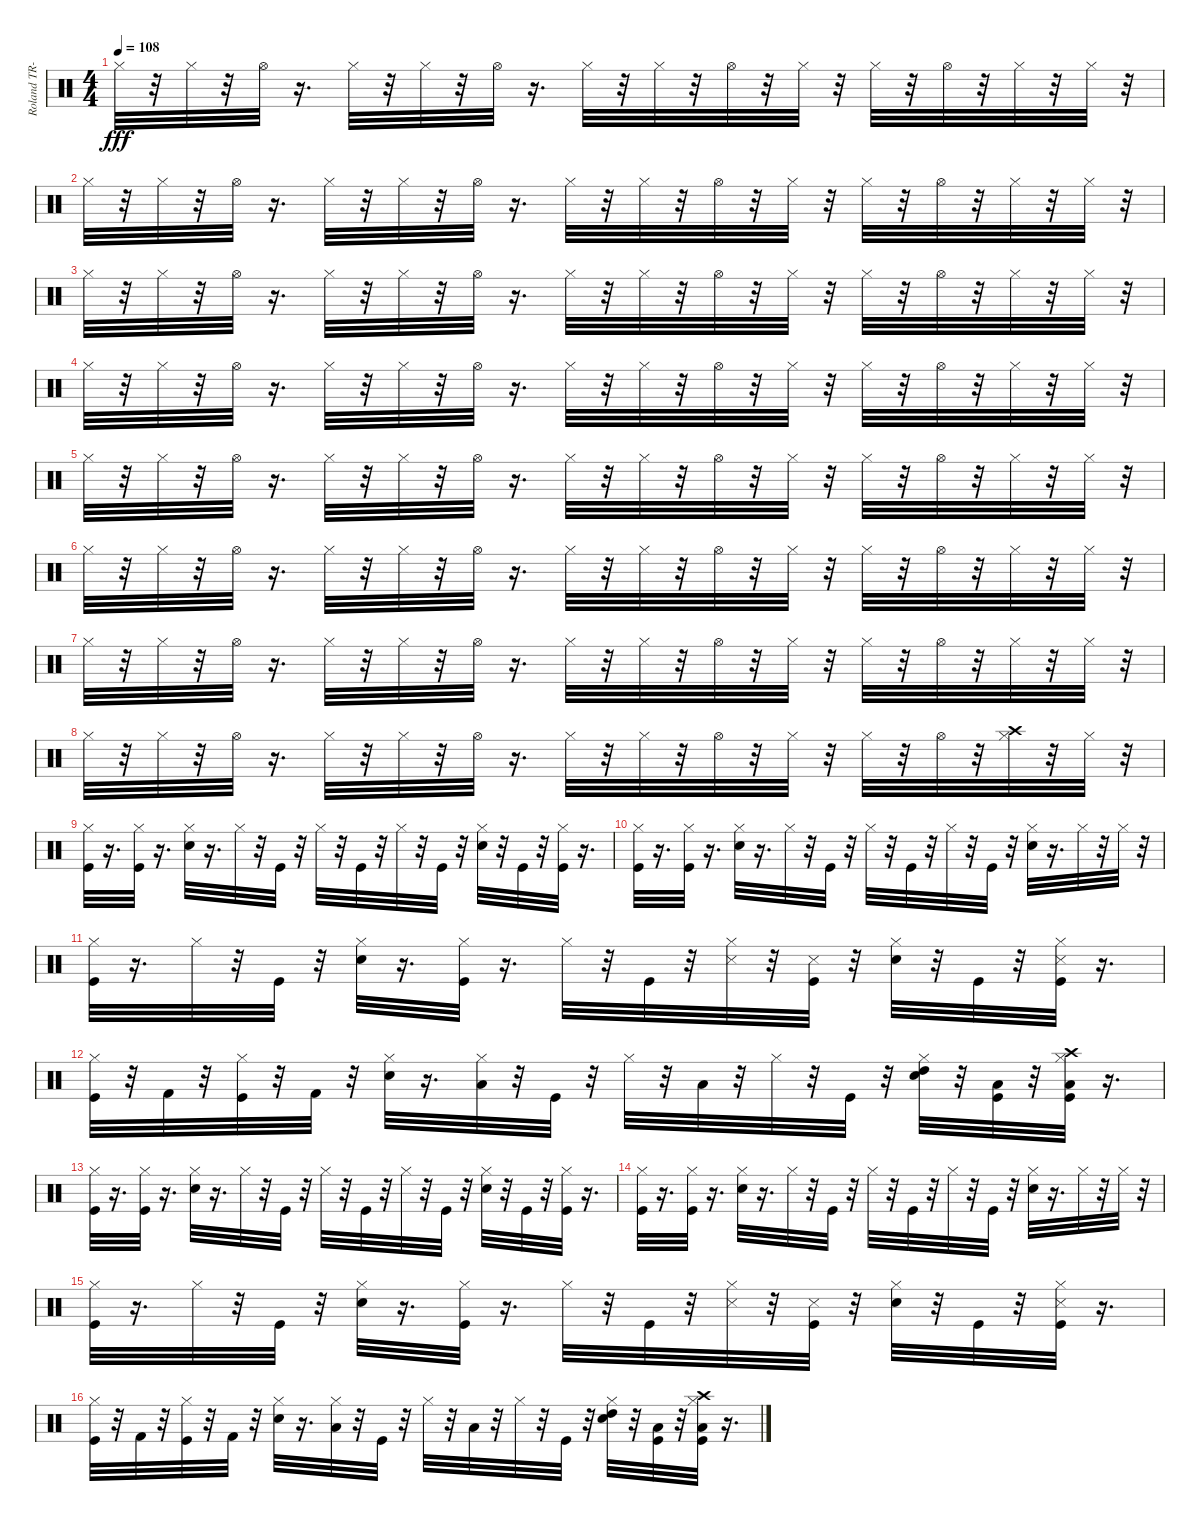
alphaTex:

\track ("Roland TR-707" "Roland TR-") {instrument percussion}
\staff {score}
\articulation defaults
\ts (4 4)
\tempo 108
\clef neutral
\ks c "Hi-Hat (closed)".32{dy fff}
r.32 "Hi-Hat (closed)".32 r.32 "Hi-Hat (open)".32 r.16{d} "Hi-Hat (closed)".32 r.32 "Hi-Hat (closed)".32 r.32 "Hi-Hat (open)".32 r.16{d} "Hi-Hat (closed)".32 r.32 "Hi-Hat (closed)".32 r.32 "Hi-Hat (open)".32 r.32 "Hi-Hat (closed)".32 r.32 "Hi-Hat (closed)".32 r.32 "Hi-Hat (open)".32 r.32 "Hi-Hat (closed)".32 r.32 "Hi-Hat (closed)".32 r.32 |
"Hi-Hat (closed)".32 r.32 "Hi-Hat (closed)".32 r.32 "Hi-Hat (open)".32 r.16{d} "Hi-Hat (closed)".32 r.32 "Hi-Hat (closed)".32 r.32 "Hi-Hat (open)".32 r.16{d} "Hi-Hat (closed)".32 r.32 "Hi-Hat (closed)".32 r.32 "Hi-Hat (open)".32 r.32 "Hi-Hat (closed)".32 r.32 "Hi-Hat (closed)".32 r.32 "Hi-Hat (open)".32 r.32 "Hi-Hat (closed)".32 r.32 "Hi-Hat (closed)".32 r.32 |
"Hi-Hat (closed)".32 r.32 "Hi-Hat (closed)".32 r.32 "Hi-Hat (open)".32 r.16{d} "Hi-Hat (closed)".32 r.32 "Hi-Hat (closed)".32 r.32 "Hi-Hat (open)".32 r.16{d} "Hi-Hat (closed)".32 r.32 "Hi-Hat (closed)".32 r.32 "Hi-Hat (open)".32 r.32 "Hi-Hat (closed)".32 r.32 "Hi-Hat (closed)".32 r.32 "Hi-Hat (open)".32 r.32 "Hi-Hat (closed)".32 r.32 "Hi-Hat (closed)".32 r.32 |
"Hi-Hat (closed)".32 r.32 "Hi-Hat (closed)".32 r.32 "Hi-Hat (open)".32 r.16{d} "Hi-Hat (closed)".32 r.32 "Hi-Hat (closed)".32 r.32 "Hi-Hat (open)".32 r.16{d} "Hi-Hat (closed)".32 r.32 "Hi-Hat (closed)".32 r.32 "Hi-Hat (open)".32 r.32 "Hi-Hat (closed)".32 r.32 "Hi-Hat (closed)".32 r.32 "Hi-Hat (open)".32 r.32 "Hi-Hat (closed)".32 r.32 "Hi-Hat (closed)".32 r.32 |
"Hi-Hat (closed)".32 r.32 "Hi-Hat (closed)".32 r.32 "Hi-Hat (open)".32 r.16{d} "Hi-Hat (closed)".32 r.32 "Hi-Hat (closed)".32 r.32 "Hi-Hat (open)".32 r.16{d} "Hi-Hat (closed)".32 r.32 "Hi-Hat (closed)".32 r.32 "Hi-Hat (open)".32 r.32 "Hi-Hat (closed)".32 r.32 "Hi-Hat (closed)".32 r.32 "Hi-Hat (open)".32 r.32 "Hi-Hat (closed)".32 r.32 "Hi-Hat (closed)".32 r.32 |
"Hi-Hat (closed)".32 r.32 "Hi-Hat (closed)".32 r.32 "Hi-Hat (open)".32 r.16{d} "Hi-Hat (closed)".32 r.32 "Hi-Hat (closed)".32 r.32 "Hi-Hat (open)".32 r.16{d} "Hi-Hat (closed)".32 r.32 "Hi-Hat (closed)".32 r.32 "Hi-Hat (open)".32 r.32 "Hi-Hat (closed)".32 r.32 "Hi-Hat (closed)".32 r.32 "Hi-Hat (open)".32 r.32 "Hi-Hat (closed)".32 r.32 "Hi-Hat (closed)".32 r.32 |
"Hi-Hat (closed)".32 r.32 "Hi-Hat (closed)".32 r.32 "Hi-Hat (open)".32 r.16{d} "Hi-Hat (closed)".32 r.32 "Hi-Hat (closed)".32 r.32 "Hi-Hat (open)".32 r.16{d} "Hi-Hat (closed)".32 r.32 "Hi-Hat (closed)".32 r.32 "Hi-Hat (open)".32 r.32 "Hi-Hat (closed)".32 r.32 "Hi-Hat (closed)".32 r.32 "Hi-Hat (open)".32 r.32 "Hi-Hat (closed)".32 r.32 "Hi-Hat (closed)".32 r.32 |
"Hi-Hat (closed)".32 r.32 "Hi-Hat (closed)".32 r.32 "Hi-Hat (open)".32 r.16{d} "Hi-Hat (closed)".32 r.32 "Hi-Hat (closed)".32 r.32 "Hi-Hat (open)".32 r.16{d} "Hi-Hat (closed)".32 r.32 "Hi-Hat (closed)".32 r.32 "Hi-Hat (open)".32 r.32 "Hi-Hat (closed)".32 r.32 "Hi-Hat (closed)".32 r.32 "Hi-Hat (open)".32 r.32 ("Hi-Hat (closed)" "Crash high (hit)").32 r.32 "Hi-Hat (closed)".32 r.32 |
("Kick (hit)" "Hi-Hat (closed)").32 r.16{d} ("Kick (hit)" "Hi-Hat (closed)").32 r.16{d} ("Snare (hit) 2" "Hi-Hat (closed)").32 r.16{d} "Hi-Hat (closed)".32 r.32 "Kick (hit)".32 r.32 "Hi-Hat (closed)".32 r.32 "Kick (hit)".32 r.32 "Hi-Hat (closed)".32 r.32 "Kick (hit)".32 r.32 ("Snare (hit) 2" "Hi-Hat (closed)").32 r.32 "Kick (hit)".32 r.32 ("Kick (hit)" "Hi-Hat (closed)").32 r.16{d} |
("Kick (hit)" "Hi-Hat (closed)").32 r.16{d} ("Kick (hit)" "Hi-Hat (closed)").32 r.16{d} ("Snare (hit) 2" "Hi-Hat (closed)").32 r.16{d} "Hi-Hat (closed)".32 r.32 "Kick (hit)".32 r.32 "Hi-Hat (closed)".32 r.32 "Kick (hit)".32 r.32 "Hi-Hat (closed)".32 r.32 "Kick (hit)".32 r.32 ("Snare (hit) 2" "Hi-Hat (closed)").32 r.16{d} "Hi-Hat (closed)".32 r.32 "Hi-Hat (closed)".32 r.32 |
("Kick (hit)" "Hi-Hat (closed)").32 r.16{d} "Hi-Hat (closed)".32 r.32 "Kick (hit)".32 r.32 ("Snare (hit) 2" "Hi-Hat (closed)").32 r.16{d} ("Kick (hit)" "Hi-Hat (closed)").32 r.16{d} "Hi-Hat (closed)".32 r.32 "Kick (hit)".32 r.32 ("Hi-Hat (closed)" "Snare (side stick) 3").32 r.32 ("Kick (hit)" "Snare (side stick) 3").32 r.32 ("Snare (hit) 2" "Hi-Hat (closed)").32 r.32 "Kick (hit)".32 r.32 ("Kick (hit)" "Hi-Hat (closed)" "Snare (side stick) 3").32 r.16{d} |
("Kick (hit)" "Hi-Hat (closed)").32 r.32 "Kick (hit) 2".32 r.32 ("Kick (hit)" "Hi-Hat (closed)").32 r.32 "Kick (hit) 2".32 r.32 ("Snare (hit) 2" "Hi-Hat (closed)").32 r.16{d} ("Low Tom (hit)" "Hi-Hat (closed)").32 r.32 "Kick (hit)".32 r.32 "Hi-Hat (closed)".32 r.32 "Low Floor Tom (hit)".32 r.32 "Hi-Hat (closed)".32 r.32 "Kick (hit)".32 r.32 ("Snare (hit) 2" "High Tom (hit)" "Hi-Hat (closed)").32 r.32 ("Kick (hit)" "Low Floor Tom (hit)").32 r.32 ("Kick (hit)" "Low Tom (hit)" "Hi-Hat (closed)" "Crash high (hit)").32 r.16{d} |
("Kick (hit)" "Hi-Hat (closed)").32 r.16{d} ("Kick (hit)" "Hi-Hat (closed)").32 r.16{d} ("Snare (hit) 2" "Hi-Hat (closed)").32 r.16{d} "Hi-Hat (closed)".32 r.32 "Kick (hit)".32 r.32 "Hi-Hat (closed)".32 r.32 "Kick (hit)".32 r.32 "Hi-Hat (closed)".32 r.32 "Kick (hit)".32 r.32 ("Snare (hit) 2" "Hi-Hat (closed)").32 r.32 "Kick (hit)".32 r.32 ("Kick (hit)" "Hi-Hat (closed)").32 r.16{d} |
("Kick (hit)" "Hi-Hat (closed)").32 r.16{d} ("Kick (hit)" "Hi-Hat (closed)").32 r.16{d} ("Snare (hit) 2" "Hi-Hat (closed)").32 r.16{d} "Hi-Hat (closed)".32 r.32 "Kick (hit)".32 r.32 "Hi-Hat (closed)".32 r.32 "Kick (hit)".32 r.32 "Hi-Hat (closed)".32 r.32 "Kick (hit)".32 r.32 ("Snare (hit) 2" "Hi-Hat (closed)").32 r.16{d} "Hi-Hat (closed)".32 r.32 "Hi-Hat (closed)".32 r.32 |
("Kick (hit)" "Hi-Hat (closed)").32 r.16{d} "Hi-Hat (closed)".32 r.32 "Kick (hit)".32 r.32 ("Snare (hit) 2" "Hi-Hat (closed)").32 r.16{d} ("Kick (hit)" "Hi-Hat (closed)").32 r.16{d} "Hi-Hat (closed)".32 r.32 "Kick (hit)".32 r.32 ("Hi-Hat (closed)" "Snare (side stick) 3").32 r.32 ("Kick (hit)" "Snare (side stick) 3").32 r.32 ("Snare (hit) 2" "Hi-Hat (closed)").32 r.32 "Kick (hit)".32 r.32 ("Kick (hit)" "Hi-Hat (closed)" "Snare (side stick) 3").32 r.16{d} |
("Kick (hit)" "Hi-Hat (closed)").32 r.32 "Kick (hit) 2".32 r.32 ("Kick (hit)" "Hi-Hat (closed)").32 r.32 "Kick (hit) 2".32 r.32 ("Snare (hit) 2" "Hi-Hat (closed)").32 r.16{d} ("Low Tom (hit)" "Hi-Hat (closed)").32 r.32 "Kick (hit)".32 r.32 "Hi-Hat (closed)".32 r.32 "Low Floor Tom (hit)".32 r.32 "Hi-Hat (closed)".32 r.32 "Kick (hit)".32 r.32 ("Snare (hit) 2" "High Tom (hit)" "Hi-Hat (closed)").32 r.32 ("Kick (hit)" "Low Floor Tom (hit)").32 r.32 ("Kick (hit)" "Low Tom (hit)" "Hi-Hat (closed)" "Crash high (hit)").32 r.16{d}
